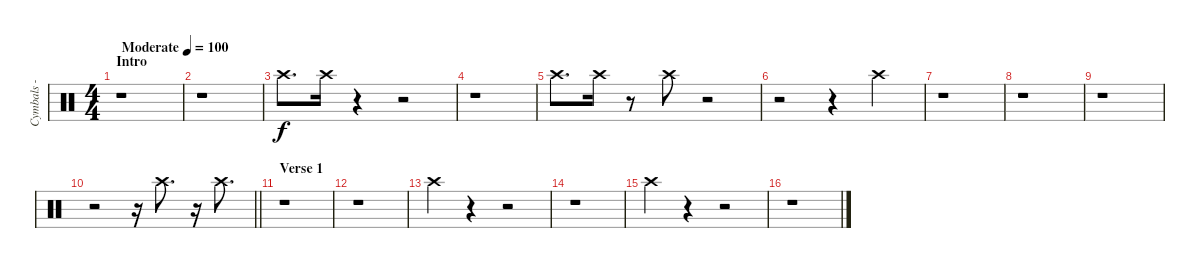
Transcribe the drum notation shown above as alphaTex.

\track ("Cymbals - crash - right" "Cymbals - ") {instrument percussion}
\staff {score}
\articulation defaults
\ts (4 4)
\section ("" "Intro")
\tempo (100 "Moderate")
\clef neutral
\ks c
r.1{dy f balance 13} |
r.1 |
"Crash high (hit)".8{d} "Crash high (hit)".16{volume 0} r.4 r.2 |
r.1 |
"Crash high (hit)".8{d volume 10} "Crash high (hit)".16 r.8 "Crash high (hit)".8{volume 0} r.2 |
r.2 r.4 "Crash high (hit)".4{volume 6} |
r.1 |
r.1 |
r.1 |
\barLineRight lightlight
r.2 r.16 "Crash high (hit)".8{d} r.16 "Crash high (hit)".8{d} |
\section ("" "Verse 1")
r.1 |
r.1 |
"Crash high (hit)".4 r.4 r.2 |
r.1 |
"Crash high (hit)".4 r.4 r.2 |
r.1
